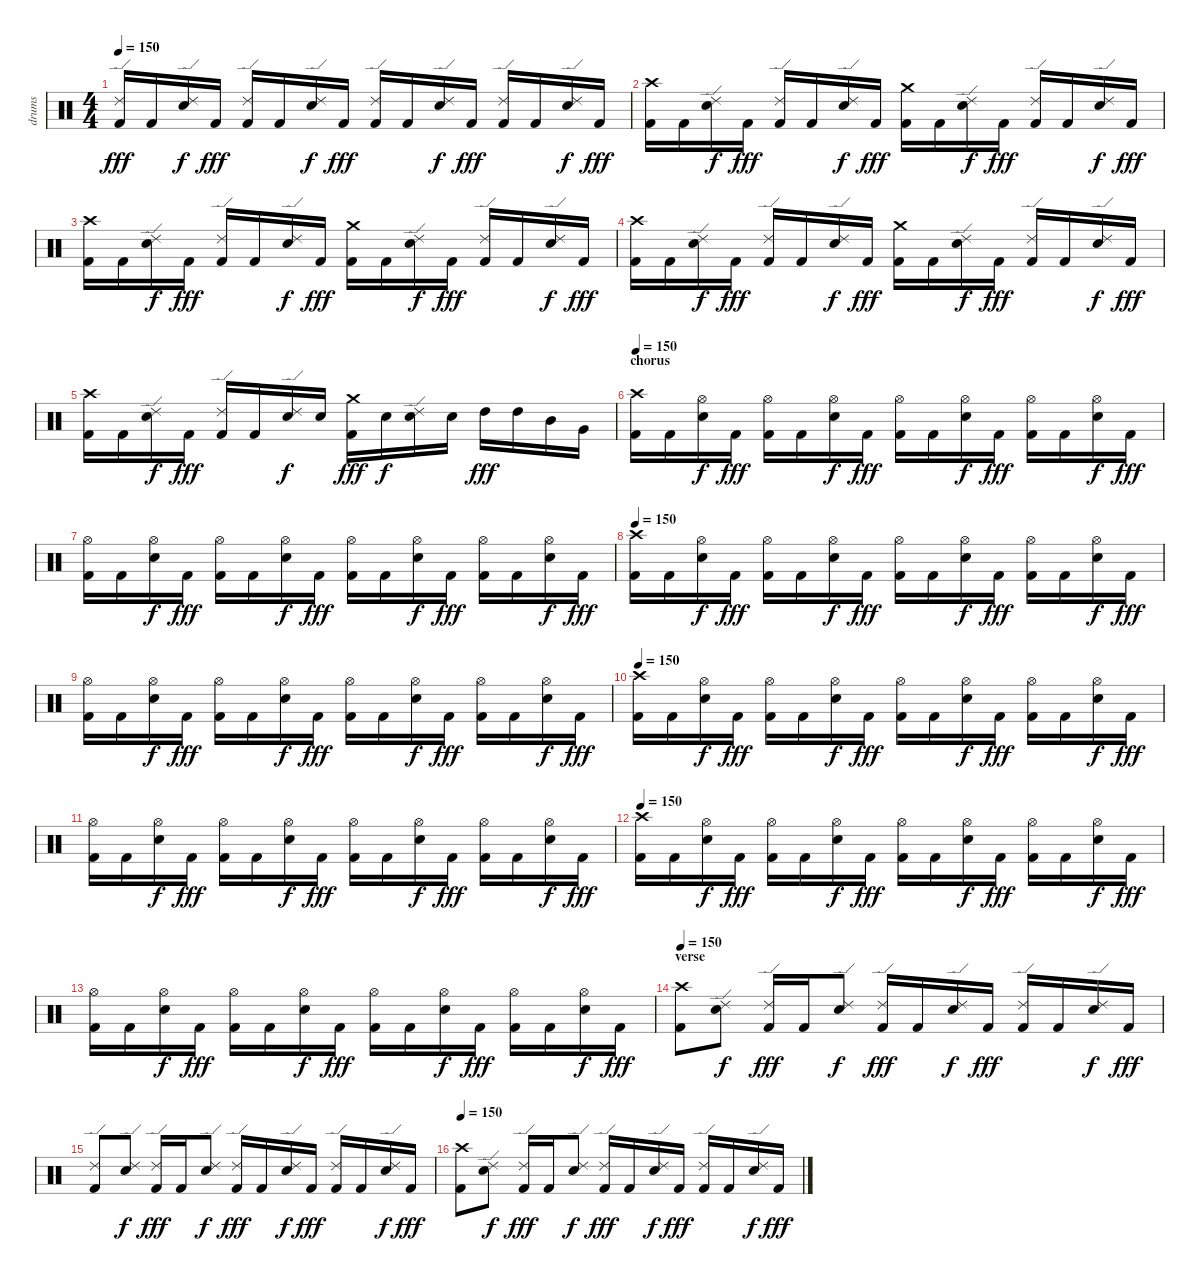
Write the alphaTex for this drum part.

\track ("drums" "drums") {instrument percussion}
\staff {score}
\articulation defaults
\ts (4 4)
\tempo 150
\clef neutral
\ks c
("Ride (edge) 2" "Kick (hit) 2").16{dy fff} "Kick (hit) 2".16 ("Ride (edge) 2" "Snare (hit) 2").16{dy f} "Kick (hit) 2".16{dy fff} ("Ride (edge) 2" "Kick (hit) 2").16 "Kick (hit) 2".16 ("Ride (edge) 2" "Snare (hit) 2").16{dy f} "Kick (hit) 2".16{dy fff} ("Ride (edge) 2" "Kick (hit) 2").16 "Kick (hit) 2".16 ("Ride (edge) 2" "Snare (hit) 2").16{dy f} "Kick (hit) 2".16{dy fff} ("Ride (edge) 2" "Kick (hit) 2").16 "Kick (hit) 2".16 ("Ride (edge) 2" "Snare (hit) 2").16{dy f} "Kick (hit) 2".16{dy fff} |
("Crash high (hit)" "Kick (hit) 2").16 "Kick (hit) 2".16 ("Ride (edge) 2" "Snare (hit) 2").16{dy f} "Kick (hit) 2".16{dy fff} ("Ride (edge) 2" "Kick (hit) 2").16 "Kick (hit) 2".16 ("Ride (edge) 2" "Snare (hit) 2").16{dy f} "Kick (hit) 2".16{dy fff} ("Crash medium (hit)" "Kick (hit) 2").16 "Kick (hit) 2".16 ("Ride (edge) 2" "Snare (hit) 2").16{dy f} "Kick (hit) 2".16{dy fff} ("Ride (edge) 2" "Kick (hit) 2").16 "Kick (hit) 2".16 ("Ride (edge) 2" "Snare (hit) 2").16{dy f} "Kick (hit) 2".16{dy fff} |
("Crash high (hit)" "Kick (hit) 2").16 "Kick (hit) 2".16 ("Ride (edge) 2" "Snare (hit) 2").16{dy f} "Kick (hit) 2".16{dy fff} ("Ride (edge) 2" "Kick (hit) 2").16 "Kick (hit) 2".16 ("Ride (edge) 2" "Snare (hit) 2").16{dy f} "Kick (hit) 2".16{dy fff} ("Crash medium (hit)" "Kick (hit) 2").16 "Kick (hit) 2".16 ("Ride (edge) 2" "Snare (hit) 2").16{dy f} "Kick (hit) 2".16{dy fff} ("Ride (edge) 2" "Kick (hit) 2").16 "Kick (hit) 2".16 ("Ride (edge) 2" "Snare (hit) 2").16{dy f} "Kick (hit) 2".16{dy fff} |
("Crash high (hit)" "Kick (hit) 2").16 "Kick (hit) 2".16 ("Ride (edge) 2" "Snare (hit) 2").16{dy f} "Kick (hit) 2".16{dy fff} ("Ride (edge) 2" "Kick (hit) 2").16 "Kick (hit) 2".16 ("Ride (edge) 2" "Snare (hit) 2").16{dy f} "Kick (hit) 2".16{dy fff} ("Crash medium (hit)" "Kick (hit) 2").16 "Kick (hit) 2".16 ("Ride (edge) 2" "Snare (hit) 2").16{dy f} "Kick (hit) 2".16{dy fff} ("Ride (edge) 2" "Kick (hit) 2").16 "Kick (hit) 2".16 ("Ride (edge) 2" "Snare (hit) 2").16{dy f} "Kick (hit) 2".16{dy fff} |
("Crash high (hit)" "Kick (hit) 2").16 "Kick (hit) 2".16 ("Ride (edge) 2" "Snare (hit) 2").16{dy f} "Kick (hit) 2".16{dy fff} ("Ride (edge) 2" "Kick (hit) 2").16 "Kick (hit) 2".16 ("Ride (edge) 2" "Snare (hit) 2").16{dy f} "Snare (hit) 2".16 ("Crash medium (hit)" "Kick (hit) 2").16{dy fff} "Snare (hit) 2".16{dy f} ("Ride (edge) 2" "Snare (hit) 2").16 "Snare (hit) 2".16 "High Tom (hit)".16{dy fff} "High Tom (hit)".16 "Mid Tom (hit)".16 "Very Low Tom (hit)".16 |
\section ("" "chorus")
\tempo 150
("Crash high (hit)" "Kick (hit) 2").16 "Kick (hit) 2".16 ("Hi-Hat (open)" "Snare (hit) 2").16{dy f} "Kick (hit) 2".16{dy fff} ("Hi-Hat (open)" "Kick (hit) 2").16 "Kick (hit) 2".16 ("Hi-Hat (open)" "Snare (hit) 2").16{dy f} "Kick (hit) 2".16{dy fff} ("Hi-Hat (open)" "Kick (hit) 2").16 "Kick (hit) 2".16 ("Hi-Hat (open)" "Snare (hit) 2").16{dy f} "Kick (hit) 2".16{dy fff} ("Hi-Hat (open)" "Kick (hit) 2").16 "Kick (hit) 2".16 ("Hi-Hat (open)" "Snare (hit) 2").16{dy f} "Kick (hit) 2".16{dy fff} |
("Hi-Hat (open)" "Kick (hit) 2").16 "Kick (hit) 2".16 ("Hi-Hat (open)" "Snare (hit) 2").16{dy f} "Kick (hit) 2".16{dy fff} ("Hi-Hat (open)" "Kick (hit) 2").16 "Kick (hit) 2".16 ("Hi-Hat (open)" "Snare (hit) 2").16{dy f} "Kick (hit) 2".16{dy fff} ("Hi-Hat (open)" "Kick (hit) 2").16 "Kick (hit) 2".16 ("Hi-Hat (open)" "Snare (hit) 2").16{dy f} "Kick (hit) 2".16{dy fff} ("Hi-Hat (open)" "Kick (hit) 2").16 "Kick (hit) 2".16 ("Hi-Hat (open)" "Snare (hit) 2").16{dy f} "Kick (hit) 2".16{dy fff} |
\tempo 150
("Crash high (hit)" "Kick (hit) 2").16 "Kick (hit) 2".16 ("Hi-Hat (open)" "Snare (hit) 2").16{dy f} "Kick (hit) 2".16{dy fff} ("Hi-Hat (open)" "Kick (hit) 2").16 "Kick (hit) 2".16 ("Hi-Hat (open)" "Snare (hit) 2").16{dy f} "Kick (hit) 2".16{dy fff} ("Hi-Hat (open)" "Kick (hit) 2").16 "Kick (hit) 2".16 ("Hi-Hat (open)" "Snare (hit) 2").16{dy f} "Kick (hit) 2".16{dy fff} ("Hi-Hat (open)" "Kick (hit) 2").16 "Kick (hit) 2".16 ("Hi-Hat (open)" "Snare (hit) 2").16{dy f} "Kick (hit) 2".16{dy fff} |
("Hi-Hat (open)" "Kick (hit) 2").16 "Kick (hit) 2".16 ("Hi-Hat (open)" "Snare (hit) 2").16{dy f} "Kick (hit) 2".16{dy fff} ("Hi-Hat (open)" "Kick (hit) 2").16 "Kick (hit) 2".16 ("Hi-Hat (open)" "Snare (hit) 2").16{dy f} "Kick (hit) 2".16{dy fff} ("Hi-Hat (open)" "Kick (hit) 2").16 "Kick (hit) 2".16 ("Hi-Hat (open)" "Snare (hit) 2").16{dy f} "Kick (hit) 2".16{dy fff} ("Hi-Hat (open)" "Kick (hit) 2").16 "Kick (hit) 2".16 ("Hi-Hat (open)" "Snare (hit) 2").16{dy f} "Kick (hit) 2".16{dy fff} |
\tempo 150
("Crash high (hit)" "Kick (hit) 2").16 "Kick (hit) 2".16 ("Hi-Hat (open)" "Snare (hit) 2").16{dy f} "Kick (hit) 2".16{dy fff} ("Hi-Hat (open)" "Kick (hit) 2").16 "Kick (hit) 2".16 ("Hi-Hat (open)" "Snare (hit) 2").16{dy f} "Kick (hit) 2".16{dy fff} ("Hi-Hat (open)" "Kick (hit) 2").16 "Kick (hit) 2".16 ("Hi-Hat (open)" "Snare (hit) 2").16{dy f} "Kick (hit) 2".16{dy fff} ("Hi-Hat (open)" "Kick (hit) 2").16 "Kick (hit) 2".16 ("Hi-Hat (open)" "Snare (hit) 2").16{dy f} "Kick (hit) 2".16{dy fff} |
("Hi-Hat (open)" "Kick (hit) 2").16 "Kick (hit) 2".16 ("Hi-Hat (open)" "Snare (hit) 2").16{dy f} "Kick (hit) 2".16{dy fff} ("Hi-Hat (open)" "Kick (hit) 2").16 "Kick (hit) 2".16 ("Hi-Hat (open)" "Snare (hit) 2").16{dy f} "Kick (hit) 2".16{dy fff} ("Hi-Hat (open)" "Kick (hit) 2").16 "Kick (hit) 2".16 ("Hi-Hat (open)" "Snare (hit) 2").16{dy f} "Kick (hit) 2".16{dy fff} ("Hi-Hat (open)" "Kick (hit) 2").16 "Kick (hit) 2".16 ("Hi-Hat (open)" "Snare (hit) 2").16{dy f} "Kick (hit) 2".16{dy fff} |
\tempo 150
("Crash high (hit)" "Kick (hit) 2").16 "Kick (hit) 2".16 ("Hi-Hat (open)" "Snare (hit) 2").16{dy f} "Kick (hit) 2".16{dy fff} ("Hi-Hat (open)" "Kick (hit) 2").16 "Kick (hit) 2".16 ("Hi-Hat (open)" "Snare (hit) 2").16{dy f} "Kick (hit) 2".16{dy fff} ("Hi-Hat (open)" "Kick (hit) 2").16 "Kick (hit) 2".16 ("Hi-Hat (open)" "Snare (hit) 2").16{dy f} "Kick (hit) 2".16{dy fff} ("Hi-Hat (open)" "Kick (hit) 2").16 "Kick (hit) 2".16 ("Hi-Hat (open)" "Snare (hit) 2").16{dy f} "Kick (hit) 2".16{dy fff} |
("Hi-Hat (open)" "Kick (hit) 2").16 "Kick (hit) 2".16 ("Hi-Hat (open)" "Snare (hit) 2").16{dy f} "Kick (hit) 2".16{dy fff} ("Hi-Hat (open)" "Kick (hit) 2").16 "Kick (hit) 2".16 ("Hi-Hat (open)" "Snare (hit) 2").16{dy f} "Kick (hit) 2".16{dy fff} ("Hi-Hat (open)" "Kick (hit) 2").16 "Kick (hit) 2".16 ("Hi-Hat (open)" "Snare (hit) 2").16{dy f} "Kick (hit) 2".16{dy fff} ("Hi-Hat (open)" "Kick (hit) 2").16 "Kick (hit) 2".16 ("Hi-Hat (open)" "Snare (hit) 2").16{dy f} "Kick (hit) 2".16{dy fff} |
\section ("" "verse")
\tempo 150
("Crash high (hit)" "Kick (hit) 2").8 ("Ride (edge) 2" "Snare (hit) 2").8{dy f} ("Ride (edge) 2" "Kick (hit) 2").16{dy fff} "Kick (hit) 2".16 ("Ride (edge) 2" "Snare (hit) 2").8{dy f} ("Ride (edge) 2" "Kick (hit) 2").16{dy fff} "Kick (hit) 2".16 ("Ride (edge) 2" "Snare (hit) 2").16{dy f} "Kick (hit) 2".16{dy fff} ("Ride (edge) 2" "Kick (hit) 2").16 "Kick (hit) 2".16 ("Ride (edge) 2" "Snare (hit) 2").16{dy f} "Kick (hit) 2".16{dy fff} |
("Ride (edge) 2" "Kick (hit) 2").8 ("Ride (edge) 2" "Snare (hit) 2").8{dy f} ("Ride (edge) 2" "Kick (hit) 2").16{dy fff} "Kick (hit) 2".16 ("Ride (edge) 2" "Snare (hit) 2").8{dy f} ("Ride (edge) 2" "Kick (hit) 2").16{dy fff} "Kick (hit) 2".16 ("Ride (edge) 2" "Snare (hit) 2").16{dy f} "Kick (hit) 2".16{dy fff} ("Ride (edge) 2" "Kick (hit) 2").16 "Kick (hit) 2".16 ("Ride (edge) 2" "Snare (hit) 2").16{dy f} "Kick (hit) 2".16{dy fff} |
\tempo 150
("Crash high (hit)" "Kick (hit) 2").8 ("Ride (edge) 2" "Snare (hit) 2").8{dy f} ("Ride (edge) 2" "Kick (hit) 2").16{dy fff} "Kick (hit) 2".16 ("Ride (edge) 2" "Snare (hit) 2").8{dy f} ("Ride (edge) 2" "Kick (hit) 2").16{dy fff} "Kick (hit) 2".16 ("Ride (edge) 2" "Snare (hit) 2").16{dy f} "Kick (hit) 2".16{dy fff} ("Ride (edge) 2" "Kick (hit) 2").16 "Kick (hit) 2".16 ("Ride (edge) 2" "Snare (hit) 2").16{dy f} "Kick (hit) 2".16{dy fff}
